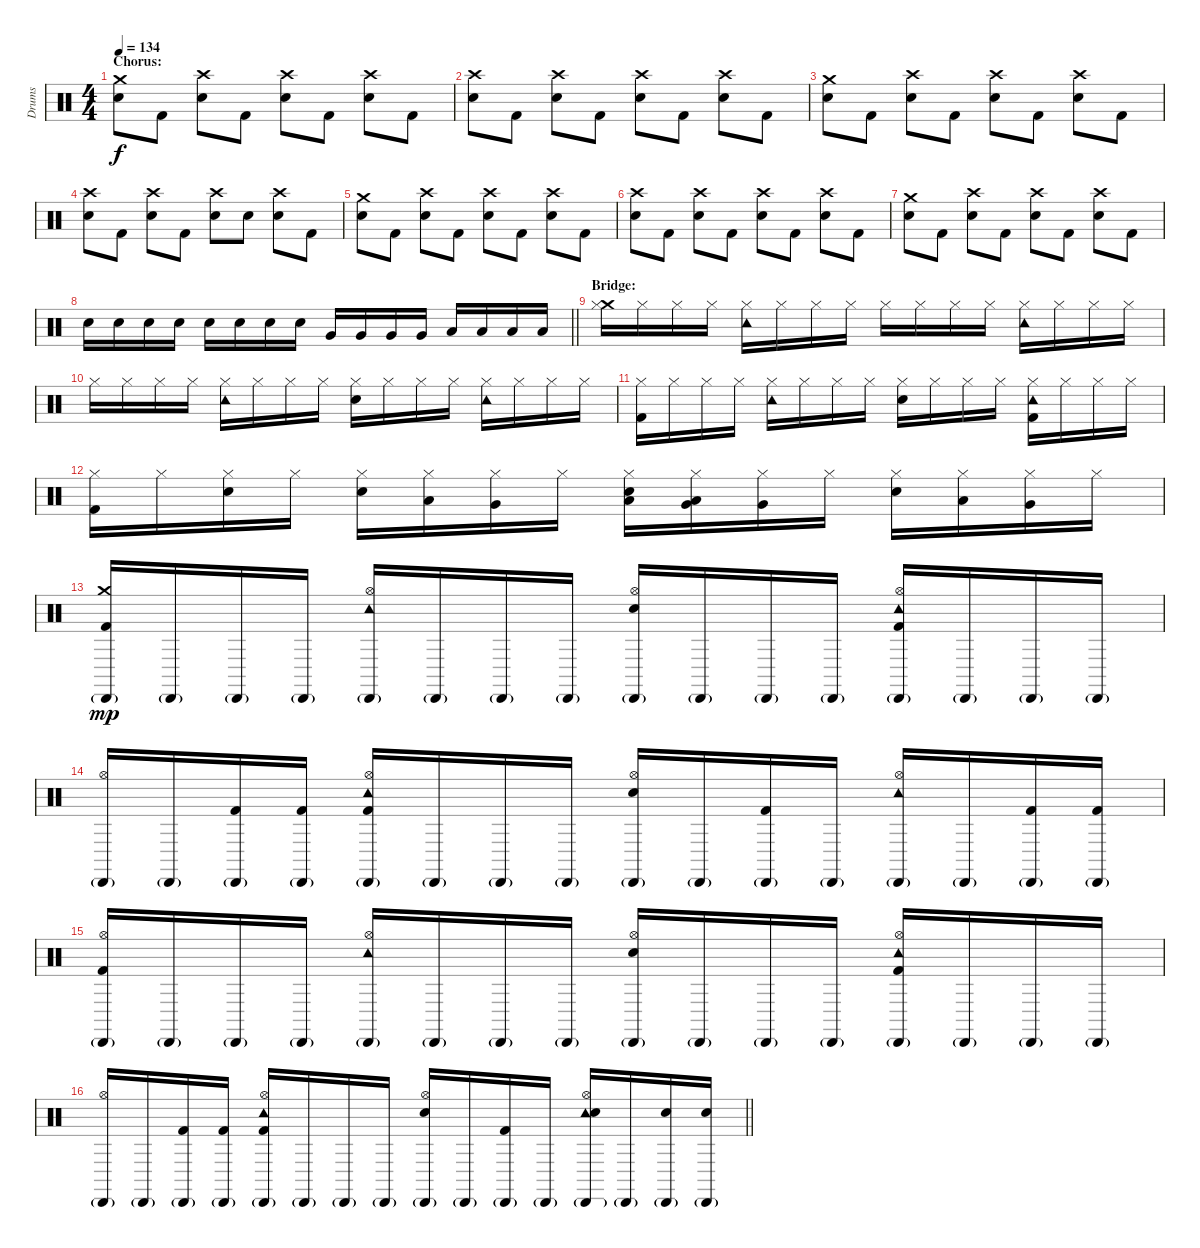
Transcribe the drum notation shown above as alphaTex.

\track ("Drums" "Drums") {instrument percussion}
\staff {score}
\articulation defaults
\ts (4 4)
\section ("" "Chorus:")
\tempo 134
\clef neutral
\ks c
("Crash medium (hit)" "Electric Snare (hit)").8{dy f} "Kick (hit) 2".8 ("Crash high (hit)" "Electric Snare (hit)").8 "Kick (hit) 2".8 ("Crash high (hit)" "Electric Snare (hit)").8 "Kick (hit) 2".8 ("Crash high (hit)" "Electric Snare (hit)").8 "Kick (hit) 2".8 |
("Crash high (hit)" "Electric Snare (hit)").8 "Kick (hit) 2".8 ("Crash high (hit)" "Electric Snare (hit)").8 "Kick (hit) 2".8 ("Crash high (hit)" "Electric Snare (hit)").8 "Kick (hit) 2".8 ("Crash high (hit)" "Electric Snare (hit)").8 "Kick (hit) 2".8 |
("Crash medium (hit)" "Electric Snare (hit)").8 "Kick (hit) 2".8 ("Crash high (hit)" "Electric Snare (hit)").8 "Kick (hit) 2".8 ("Crash high (hit)" "Electric Snare (hit)").8 "Kick (hit) 2".8 ("Crash high (hit)" "Electric Snare (hit)").8 "Kick (hit) 2".8 |
("Crash high (hit)" "Electric Snare (hit)").8 "Kick (hit) 2".8 ("Crash high (hit)" "Electric Snare (hit)").8 "Kick (hit) 2".8 ("Crash high (hit)" "Electric Snare (hit)").8 "Electric Snare (hit)".8 ("Crash high (hit)" "Electric Snare (hit)").8 "Kick (hit) 2".8 |
("Crash medium (hit)" "Electric Snare (hit)").8 "Kick (hit) 2".8 ("Crash high (hit)" "Electric Snare (hit)").8 "Kick (hit) 2".8 ("Crash high (hit)" "Electric Snare (hit)").8 "Kick (hit) 2".8 ("Crash high (hit)" "Electric Snare (hit)").8 "Kick (hit) 2".8 |
("Crash high (hit)" "Electric Snare (hit)").8 "Kick (hit) 2".8 ("Crash high (hit)" "Electric Snare (hit)").8 "Kick (hit) 2".8 ("Crash high (hit)" "Electric Snare (hit)").8 "Kick (hit) 2".8 ("Crash high (hit)" "Electric Snare (hit)").8 "Kick (hit) 2".8 |
("Crash medium (hit)" "Electric Snare (hit)").8 "Kick (hit) 2".8 ("Crash high (hit)" "Electric Snare (hit)").8 "Kick (hit) 2".8 ("Crash high (hit)" "Electric Snare (hit)").8 "Kick (hit) 2".8 ("Crash high (hit)" "Electric Snare (hit)").8 "Kick (hit) 2".8 |
\barLineRight lightlight "Electric Snare (hit)".16 "Electric Snare (hit)".16 "Electric Snare (hit)".16 "Electric Snare (hit)".16 "Electric Snare (hit)".16 "Electric Snare (hit)".16 "Electric Snare (hit)".16 "Electric Snare (hit)".16 "Very Low Tom (hit)".16 "Very Low Tom (hit)".16 "Very Low Tom (hit)".16 "Very Low Tom (hit)".16 "Low Floor Tom (hit)".16 "Low Floor Tom (hit)".16 "Low Floor Tom (hit)".16 "Low Floor Tom (hit)".16
|
\section ("" "Bridge:")
("Crash medium (hit)" "Hi-Hat (closed)").16 "Hi-Hat (closed)".16 "Hi-Hat (closed)".16 "Hi-Hat (closed)".16 ("Tambourine (hit)" "Hi-Hat (closed)").16 "Hi-Hat (closed)".16 "Hi-Hat (closed)".16 "Hi-Hat (closed)".16 "Hi-Hat (closed)".16 "Hi-Hat (closed)".16 "Hi-Hat (closed)".16 "Hi-Hat (closed)".16 ("Tambourine (hit)" "Hi-Hat (closed)").16 "Hi-Hat (closed)".16 "Hi-Hat (closed)".16 "Hi-Hat (closed)".16 |
"Hi-Hat (closed)".16 "Hi-Hat (closed)".16 "Hi-Hat (closed)".16 "Hi-Hat (closed)".16 ("Tambourine (hit)" "Hi-Hat (closed)").16 "Hi-Hat (closed)".16 "Hi-Hat (closed)".16 "Hi-Hat (closed)".16 ("Hi-Hat (closed)" "Hand Clap (hit)").16 "Hi-Hat (closed)".16 "Hi-Hat (closed)".16 "Hi-Hat (closed)".16 ("Tambourine (hit)" "Hi-Hat (closed)").16 "Hi-Hat (closed)".16 "Hi-Hat (closed)".16 "Hi-Hat (closed)".16 |
("Hi-Hat (closed)" "Kick (hit) 2").16 "Hi-Hat (closed)".16 "Hi-Hat (closed)".16 "Hi-Hat (closed)".16 ("Tambourine (hit)" "Hi-Hat (closed)").16 "Hi-Hat (closed)".16 "Hi-Hat (closed)".16 "Hi-Hat (closed)".16 ("Hi-Hat (closed)" "Hand Clap (hit)").16 "Hi-Hat (closed)".16 "Hi-Hat (closed)".16 "Hi-Hat (closed)".16 ("Tambourine (hit)" "Hi-Hat (closed)" "Kick (hit) 2").16 "Hi-Hat (closed)".16 "Hi-Hat (closed)".16 "Hi-Hat (closed)".16 |
("Hi-Hat (closed)" "Kick (hit) 2").16 "Hi-Hat (closed)".16 ("Hi-Hat (closed)" "Electric Snare (hit)").16 "Hi-Hat (closed)".16 ("Hi-Hat (closed)" "Electric Snare (hit)").16 ("Hi-Hat (closed)" "Low Tom (hit)").16 ("Hi-Hat (closed)" "Very Low Tom (hit)").16 "Hi-Hat (closed)".16 ("Hi-Hat (closed)" "Low Tom (hit)" "Electric Snare (hit)").16 ("Hi-Hat (closed)" "Low Tom (hit)" "Very Low Tom (hit)").16 ("Hi-Hat (closed)" "Very Low Tom (hit)").16 "Hi-Hat (closed)".16 ("Hi-Hat (closed)" "Electric Snare (hit)").16 ("Hi-Hat (closed)" "Low Tom (hit)").16 ("Hi-Hat (closed)" "Very Low Tom (hit)").16 "Hi-Hat (closed)".16 |
("Cabasa (hit)"{g} "Crash medium (hit)" "Kick (hit) 2").16{dy mp} "Cabasa (hit)"{g}.16 "Cabasa (hit)"{g}.16 "Cabasa (hit)"{g}.16 ("Tambourine (hit)" "Cabasa (hit)"{g} "Hi-Hat (open)").16 "Cabasa (hit)"{g}.16 "Cabasa (hit)"{g}.16 "Cabasa (hit)"{g}.16 ("Cabasa (hit)"{g} "Hi-Hat (open)" "Electric Snare (hit)").16 "Cabasa (hit)"{g}.16 "Cabasa (hit)"{g}.16 "Cabasa (hit)"{g}.16 ("Tambourine (hit)" "Cabasa (hit)"{g} "Hi-Hat (open)" "Kick (hit) 2").16 "Cabasa (hit)"{g}.16 "Cabasa (hit)"{g}.16 "Cabasa (hit)"{g}.16 |
("Cabasa (hit)"{g} "Hi-Hat (open)").16 "Cabasa (hit)"{g}.16 ("Cabasa (hit)"{g} "Kick (hit) 2").16 ("Cabasa (hit)"{g} "Kick (hit) 2").16 ("Tambourine (hit)" "Cabasa (hit)"{g} "Hi-Hat (open)" "Kick (hit) 2").16 "Cabasa (hit)"{g}.16 "Cabasa (hit)"{g}.16 "Cabasa (hit)"{g}.16 ("Cabasa (hit)"{g} "Hi-Hat (open)" "Electric Snare (hit)").16 "Cabasa (hit)"{g}.16 ("Cabasa (hit)"{g} "Kick (hit) 2").16 "Cabasa (hit)"{g}.16 ("Tambourine (hit)" "Cabasa (hit)"{g} "Hi-Hat (open)").16 "Cabasa (hit)"{g}.16 ("Cabasa (hit)"{g} "Kick (hit) 2").16 ("Cabasa (hit)"{g} "Kick (hit) 2").16 |
("Cabasa (hit)"{g} "Hi-Hat (open)" "Kick (hit) 2").16 "Cabasa (hit)"{g}.16 "Cabasa (hit)"{g}.16 "Cabasa (hit)"{g}.16 ("Tambourine (hit)" "Cabasa (hit)"{g} "Hi-Hat (open)").16 "Cabasa (hit)"{g}.16 "Cabasa (hit)"{g}.16 "Cabasa (hit)"{g}.16 ("Cabasa (hit)"{g} "Hi-Hat (open)" "Electric Snare (hit)").16 "Cabasa (hit)"{g}.16 "Cabasa (hit)"{g}.16 "Cabasa (hit)"{g}.16 ("Tambourine (hit)" "Cabasa (hit)"{g} "Hi-Hat (open)" "Kick (hit) 2").16 "Cabasa (hit)"{g}.16 "Cabasa (hit)"{g}.16 "Cabasa (hit)"{g}.16 |
\barLineRight lightlight
("Cabasa (hit)"{g} "Hi-Hat (open)").16 "Cabasa (hit)"{g}.16 ("Cabasa (hit)"{g} "Kick (hit) 2").16 ("Cabasa (hit)"{g} "Kick (hit) 2").16 ("Tambourine (hit)" "Cabasa (hit)"{g} "Hi-Hat (open)" "Kick (hit) 2").16 "Cabasa (hit)"{g}.16 "Cabasa (hit)"{g}.16 "Cabasa (hit)"{g}.16 ("Cabasa (hit)"{g} "Hi-Hat (open)" "Electric Snare (hit)").16 "Cabasa (hit)"{g}.16 ("Cabasa (hit)"{g} "Kick (hit) 2").16 "Cabasa (hit)"{g}.16 ("Tambourine (hit)" "Cabasa (hit)"{g} "Hi-Hat (open)" "Electric Snare (hit)").16 "Cabasa (hit)"{g}.16 ("Cabasa (hit)"{g} "Electric Snare (hit)").16 ("Cabasa (hit)"{g} "Electric Snare (hit)").16
